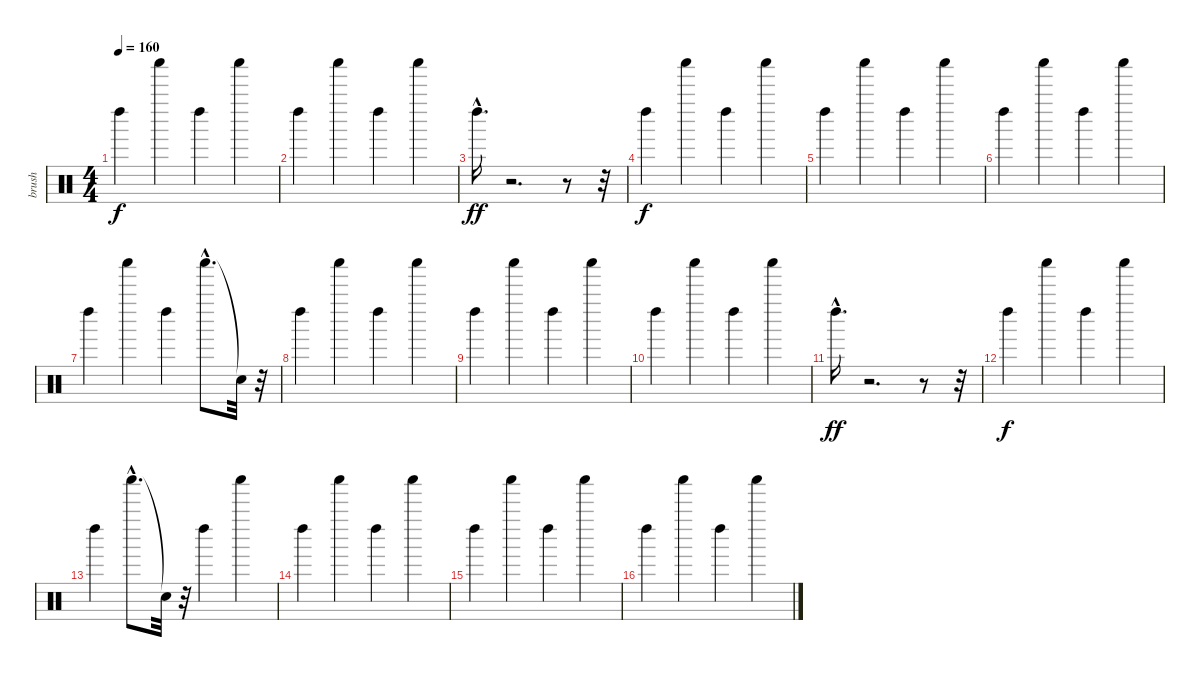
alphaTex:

\track ("brush" "brush") {instrument percussion}
\staff {score}
\articulation defaults
\ts (4 4)
\tempo 160
\clef neutral
\ks c "Left Maraca (hit)".4{dy f} "Shaker (hit)".4 "Left Maraca (hit)".4 "Shaker (hit)".4
|
"Left Maraca (hit)".4 "Shaker (hit)".4 "Left Maraca (hit)".4 "Shaker (hit)".4 |
"Left Maraca (hit)"{hac}.16{d dy ff} r.2{d} r.8 r.32 |
"Left Maraca (hit)".4{dy f} "Shaker (hit)".4 "Left Maraca (hit)".4 "Shaker (hit)".4 |
"Left Maraca (hit)".4 "Shaker (hit)".4 "Left Maraca (hit)".4 "Shaker (hit)".4 |
"Left Maraca (hit)".4 "Shaker (hit)".4 "Left Maraca (hit)".4 "Shaker (hit)".4 |
"Left Maraca (hit)".4 "Shaker (hit)".4 "Left Maraca (hit)".4 "Shaker (hit)"{hac}.8{d} "Snare (hit)"{t}.32 r.32 |
"Left Maraca (hit)".4 "Shaker (hit)".4 "Left Maraca (hit)".4 "Shaker (hit)".4 |
"Left Maraca (hit)".4 "Shaker (hit)".4 "Left Maraca (hit)".4 "Shaker (hit)".4 |
"Left Maraca (hit)".4 "Shaker (hit)".4 "Left Maraca (hit)".4 "Shaker (hit)".4 |
"Left Maraca (hit)"{hac}.16{d dy ff} r.2{d} r.8 r.32 |
"Left Maraca (hit)".4{dy f} "Shaker (hit)".4 "Left Maraca (hit)".4 "Shaker (hit)".4 |
"Left Maraca (hit)".4 "Shaker (hit)"{hac}.8{d} "Snare (hit)"{t}.32 r.32 "Left Maraca (hit)".4 "Shaker (hit)".4 |
"Left Maraca (hit)".4 "Shaker (hit)".4 "Left Maraca (hit)".4 "Shaker (hit)".4 |
"Left Maraca (hit)".4 "Shaker (hit)".4 "Left Maraca (hit)".4 "Shaker (hit)".4 |
"Left Maraca (hit)".4 "Shaker (hit)".4 "Left Maraca (hit)".4 "Shaker (hit)".4
